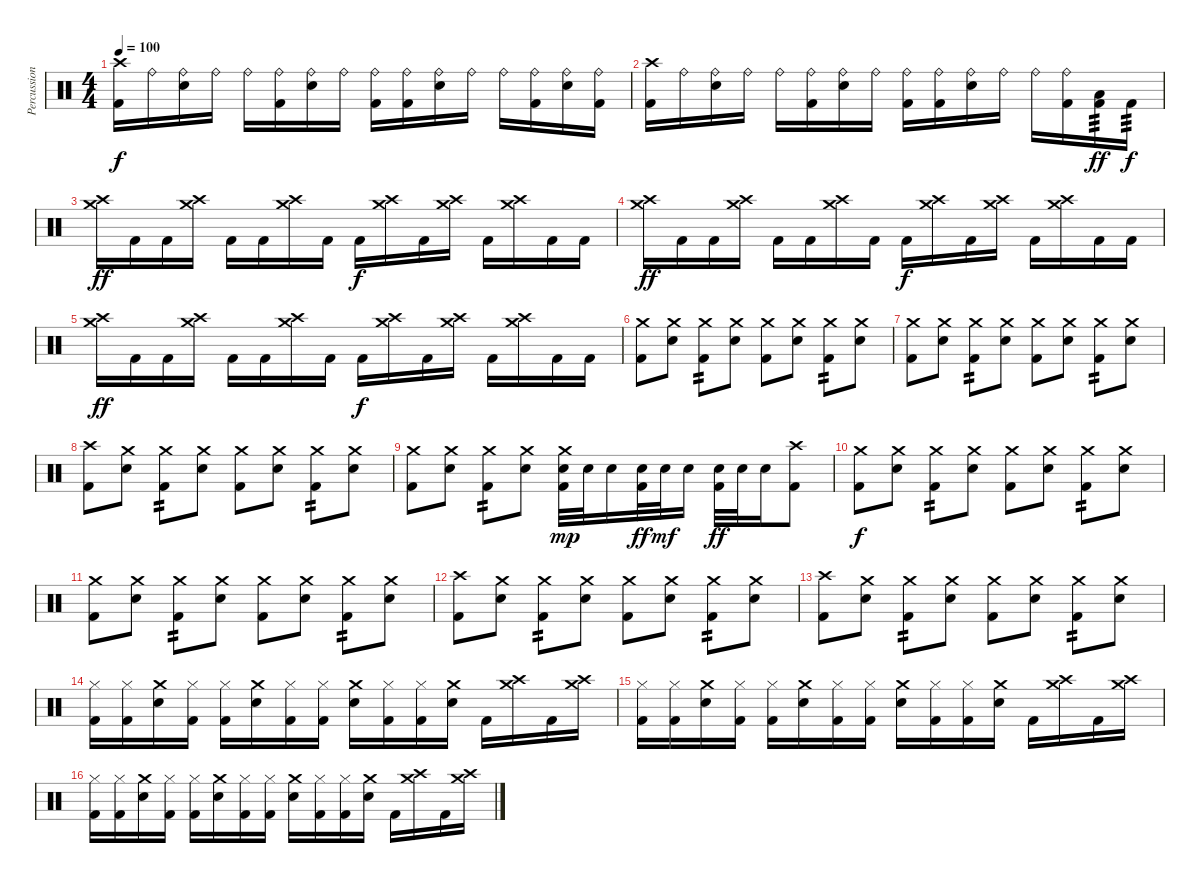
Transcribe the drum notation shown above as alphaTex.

\track ("Percussion" "Percussion") {instrument percussion}
\staff {score}
\articulation defaults
\ts (4 4)
\tempo 100
\clef neutral
\ks c
("Crash high (hit)" "Kick (hit) 2").16{dy f} "Ride (bell)".16 ("Ride (bell)" "Electric Snare (hit)").16 "Ride (bell)".16 "Ride (bell)".16 ("Ride (bell)" "Kick (hit) 2").16 ("Ride (bell)" "Electric Snare (hit)").16 "Ride (bell)".16 ("Ride (bell)" "Kick (hit) 2").16 ("Ride (bell)" "Kick (hit) 2").16 ("Ride (bell)" "Electric Snare (hit)").16 "Ride (bell)".16 "Ride (bell)".16 ("Ride (bell)" "Kick (hit) 2").16 ("Ride (bell)" "Electric Snare (hit)").16 ("Ride (bell)" "Kick (hit) 2").16 |
("Crash high (hit)" "Kick (hit) 2").16 "Ride (bell)".16 ("Ride (bell)" "Electric Snare (hit)").16 "Ride (bell)".16 "Ride (bell)".16 ("Ride (bell)" "Kick (hit) 2").16 ("Ride (bell)" "Electric Snare (hit)").16 "Ride (bell)".16 ("Ride (bell)" "Kick (hit) 2").16 ("Ride (bell)" "Kick (hit) 2").16 ("Ride (bell)" "Electric Snare (hit)").16 "Ride (bell)".16 "Ride (bell)".16 ("Ride (bell)" "Kick (hit) 2").16 ("Low Tom (hit)" "Kick (hit) 2").16{tp 3 dy ff} "Kick (hit) 2".16{tp 3 dy f} |
("Crash high (hit)" "Crash medium (hit)").16{dy ff} "Kick (hit) 2".16 "Kick (hit) 2".16 ("Crash high (hit)" "Crash medium (hit)").16 "Kick (hit) 2".16 "Kick (hit) 2".16 ("Crash high (hit)" "Crash medium (hit)").16 "Kick (hit) 2".16 "Kick (hit) 2".16{dy f} ("Crash high (hit)" "Crash medium (hit)").16 "Kick (hit) 2".16 ("Crash high (hit)" "Crash medium (hit)").16 "Kick (hit) 2".16 ("Crash high (hit)" "Crash medium (hit)").16 "Kick (hit) 2".16 "Kick (hit) 2".16 |
("Crash high (hit)" "Crash medium (hit)").16{dy ff} "Kick (hit) 2".16 "Kick (hit) 2".16 ("Crash high (hit)" "Crash medium (hit)").16 "Kick (hit) 2".16 "Kick (hit) 2".16 ("Crash high (hit)" "Crash medium (hit)").16 "Kick (hit) 2".16 "Kick (hit) 2".16{dy f} ("Crash high (hit)" "Crash medium (hit)").16 "Kick (hit) 2".16 ("Crash high (hit)" "Crash medium (hit)").16 "Kick (hit) 2".16 ("Crash high (hit)" "Crash medium (hit)").16 "Kick (hit) 2".16 "Kick (hit) 2".16 |
("Crash high (hit)" "Crash medium (hit)").16{dy ff} "Kick (hit) 2".16 "Kick (hit) 2".16 ("Crash high (hit)" "Crash medium (hit)").16 "Kick (hit) 2".16 "Kick (hit) 2".16 ("Crash high (hit)" "Crash medium (hit)").16 "Kick (hit) 2".16 "Kick (hit) 2".16{dy f} ("Crash high (hit)" "Crash medium (hit)").16 "Kick (hit) 2".16 ("Crash high (hit)" "Crash medium (hit)").16 "Kick (hit) 2".16 ("Crash high (hit)" "Crash medium (hit)").16 "Kick (hit) 2".16 "Kick (hit) 2".16 |
("Crash medium (hit)" "Kick (hit) 2").8 ("Crash medium (hit)" "Electric Snare (hit)").8 ("Crash medium (hit)" "Kick (hit) 2").8{tp 2} ("Crash medium (hit)" "Electric Snare (hit)").8 ("Crash medium (hit)" "Kick (hit) 2").8 ("Crash medium (hit)" "Electric Snare (hit)").8 ("Crash medium (hit)" "Kick (hit) 2").8{tp 2} ("Crash medium (hit)" "Electric Snare (hit)").8 |
("Crash medium (hit)" "Kick (hit) 2").8 ("Crash medium (hit)" "Electric Snare (hit)").8 ("Crash medium (hit)" "Kick (hit) 2").8{tp 2} ("Crash medium (hit)" "Electric Snare (hit)").8 ("Crash medium (hit)" "Kick (hit) 2").8 ("Crash medium (hit)" "Electric Snare (hit)").8 ("Crash medium (hit)" "Kick (hit) 2").8{tp 2} ("Crash medium (hit)" "Electric Snare (hit)").8 |
("Crash high (hit)" "Kick (hit) 2").8 ("Crash medium (hit)" "Electric Snare (hit)").8 ("Crash medium (hit)" "Kick (hit) 2").8{tp 2} ("Crash medium (hit)" "Electric Snare (hit)").8 ("Crash medium (hit)" "Kick (hit) 2").8 ("Crash medium (hit)" "Electric Snare (hit)").8 ("Crash medium (hit)" "Kick (hit) 2").8{tp 2} ("Crash medium (hit)" "Electric Snare (hit)").8 |
("Crash medium (hit)" "Kick (hit) 2").8 ("Crash medium (hit)" "Electric Snare (hit)").8 ("Crash medium (hit)" "Kick (hit) 2").8{tp 2} ("Crash medium (hit)" "Electric Snare (hit)").8 ("Crash medium (hit)" "Electric Snare (hit)" "Kick (hit) 2").32{dy mp} "Electric Snare (hit)".32 "Electric Snare (hit)".16 ("Electric Snare (hit)" "Kick (hit) 2").32{dy ff} "Electric Snare (hit)".32{dy mf} "Electric Snare (hit)".16 ("Electric Snare (hit)" "Kick (hit) 2").32{dy ff} "Electric Snare (hit)".32 "Electric Snare (hit)".16 ("Crash high (hit)" "Kick (hit) 2").8 |
("Crash medium (hit)" "Kick (hit) 2").8{dy f} ("Crash medium (hit)" "Electric Snare (hit)").8 ("Crash medium (hit)" "Kick (hit) 2").8{tp 2} ("Crash medium (hit)" "Electric Snare (hit)").8 ("Crash medium (hit)" "Kick (hit) 2").8 ("Crash medium (hit)" "Electric Snare (hit)").8 ("Crash medium (hit)" "Kick (hit) 2").8{tp 2} ("Crash medium (hit)" "Electric Snare (hit)").8 |
("Crash medium (hit)" "Kick (hit) 2").8 ("Crash medium (hit)" "Electric Snare (hit)").8 ("Crash medium (hit)" "Kick (hit) 2").8{tp 2} ("Crash medium (hit)" "Electric Snare (hit)").8 ("Crash medium (hit)" "Kick (hit) 2").8 ("Crash medium (hit)" "Electric Snare (hit)").8 ("Crash medium (hit)" "Kick (hit) 2").8{tp 2} ("Crash medium (hit)" "Electric Snare (hit)").8 |
("Crash high (hit)" "Kick (hit) 2").8 ("Crash medium (hit)" "Electric Snare (hit)").8 ("Crash medium (hit)" "Kick (hit) 2").8{tp 2} ("Crash medium (hit)" "Electric Snare (hit)").8 ("Crash medium (hit)" "Kick (hit) 2").8 ("Crash medium (hit)" "Electric Snare (hit)").8 ("Crash medium (hit)" "Kick (hit) 2").8{tp 2} ("Crash medium (hit)" "Electric Snare (hit)").8 |
("Crash high (hit)" "Kick (hit) 2").8 ("Crash medium (hit)" "Electric Snare (hit)").8 ("Crash medium (hit)" "Kick (hit) 2").8{tp 2} ("Crash medium (hit)" "Electric Snare (hit)").8 ("Crash medium (hit)" "Kick (hit) 2").8 ("Crash medium (hit)" "Electric Snare (hit)").8 ("Crash medium (hit)" "Kick (hit) 2").8{tp 2} ("Crash medium (hit)" "Electric Snare (hit)").8 |
("Hi-Hat (closed)" "Kick (hit) 2").16 ("Hi-Hat (closed)" "Kick (hit) 2").16 ("Crash medium (hit)" "Electric Snare (hit)").16 ("Hi-Hat (closed)" "Kick (hit) 2").16 ("Hi-Hat (closed)" "Kick (hit) 2").16 ("Crash medium (hit)" "Electric Snare (hit)").16 ("Hi-Hat (closed)" "Kick (hit) 2").16 ("Hi-Hat (closed)" "Kick (hit) 2").16 ("Crash medium (hit)" "Electric Snare (hit)").16 ("Hi-Hat (closed)" "Kick (hit) 2").16 ("Hi-Hat (closed)" "Kick (hit) 2").16 ("Crash medium (hit)" "Electric Snare (hit)").16 "Kick (hit) 2".16 ("Crash medium (hit)" "Crash high (hit)").16 "Kick (hit) 2".16 ("Crash medium (hit)" "Crash high (hit)").16 |
("Hi-Hat (closed)" "Kick (hit) 2").16 ("Hi-Hat (closed)" "Kick (hit) 2").16 ("Crash medium (hit)" "Electric Snare (hit)").16 ("Hi-Hat (closed)" "Kick (hit) 2").16 ("Hi-Hat (closed)" "Kick (hit) 2").16 ("Crash medium (hit)" "Electric Snare (hit)").16 ("Hi-Hat (closed)" "Kick (hit) 2").16 ("Hi-Hat (closed)" "Kick (hit) 2").16 ("Crash medium (hit)" "Electric Snare (hit)").16 ("Hi-Hat (closed)" "Kick (hit) 2").16 ("Hi-Hat (closed)" "Kick (hit) 2").16 ("Crash medium (hit)" "Electric Snare (hit)").16 "Kick (hit) 2".16 ("Crash medium (hit)" "Crash high (hit)").16 "Kick (hit) 2".16 ("Crash medium (hit)" "Crash high (hit)").16 |
("Hi-Hat (closed)" "Kick (hit) 2").16 ("Hi-Hat (closed)" "Kick (hit) 2").16 ("Crash medium (hit)" "Electric Snare (hit)").16 ("Hi-Hat (closed)" "Kick (hit) 2").16 ("Hi-Hat (closed)" "Kick (hit) 2").16 ("Crash medium (hit)" "Electric Snare (hit)").16 ("Hi-Hat (closed)" "Kick (hit) 2").16 ("Hi-Hat (closed)" "Kick (hit) 2").16 ("Crash medium (hit)" "Electric Snare (hit)").16 ("Hi-Hat (closed)" "Kick (hit) 2").16 ("Hi-Hat (closed)" "Kick (hit) 2").16 ("Crash medium (hit)" "Electric Snare (hit)").16 "Kick (hit) 2".16 ("Crash medium (hit)" "Crash high (hit)").16 "Kick (hit) 2".16 ("Crash medium (hit)" "Crash high (hit)").16
